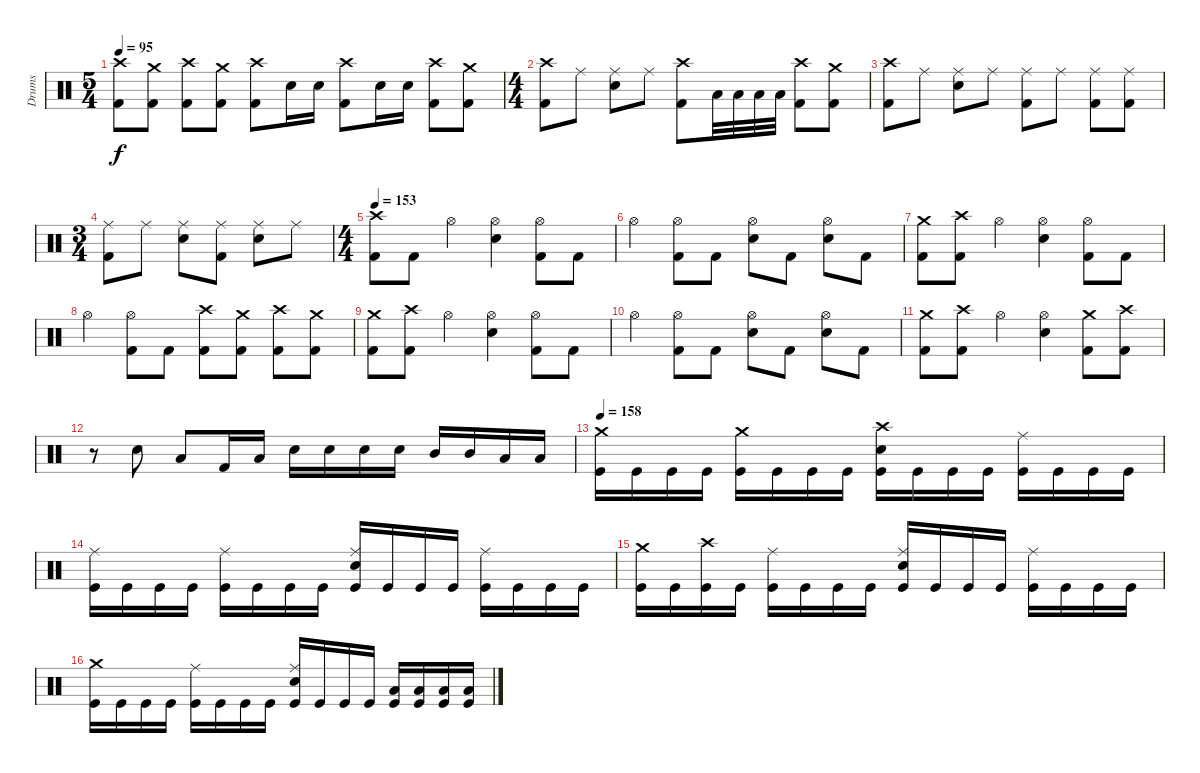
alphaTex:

\track ("Drums" "Drums") {instrument percussion}
\staff {score}
\articulation defaults
\ts (5 4)
\tempo 95
\clef neutral
\ks c
("Crash high (hit)" "Kick (hit) 2").8{dy f} ("Crash medium (hit)" "Kick (hit) 2").8 ("Crash high (hit)" "Kick (hit) 2").8 ("Crash medium (hit)" "Kick (hit) 2").8 ("Crash high (hit)" "Kick (hit) 2").8 "Snare (hit) 2".16 "Snare (hit) 2".16 ("Crash high (hit)" "Kick (hit) 2").8 "Snare (hit) 2".16 "Snare (hit) 2".16 ("Crash high (hit)" "Kick (hit) 2").8 ("Crash medium (hit)" "Kick (hit) 2").8 |
\ts (4 4)
("Crash high (hit)" "Kick (hit) 2").8 "Ride (middle)".8 ("Ride (middle)" "Snare (hit) 2").8 "Ride (middle)".8 ("Crash high (hit)" "Kick (hit) 2").8 "Low Tom (hit)".32 "Low Tom (hit)".32 "Low Tom (hit)".32 "Low Tom (hit)".32 ("Crash high (hit)" "Kick (hit) 2").8 ("Crash medium (hit)" "Kick (hit) 2").8 |
("Crash high (hit)" "Kick (hit) 2").8 "Ride (middle)".8 ("Ride (middle)" "Snare (hit) 2").8 "Ride (middle)".8 ("Ride (middle)" "Kick (hit) 2").8 "Ride (middle)".8 ("Ride (middle)" "Kick (hit) 2").8 ("Ride (middle)" "Kick (hit) 2").8 |
\ts (3 4)
("Ride (middle)" "Kick (hit) 2").8 "Ride (middle)".8 ("Ride (middle)" "Snare (hit) 2").8 ("Ride (middle)" "Kick (hit) 2").8 ("Ride (middle)" "Snare (hit) 2").8 "Ride (middle)".8 |
\ts (4 4)
\tempo 153
("Crash high (hit)" "Kick (hit) 2").8 "Kick (hit) 2".8 "Hi-Hat (open)".4 ("Hi-Hat (open)" "Snare (hit) 2").4 ("Hi-Hat (open)" "Kick (hit) 2").8 "Kick (hit) 2".8 |
"Hi-Hat (open)".4 ("Hi-Hat (open)" "Kick (hit) 2").8 "Kick (hit) 2".8 ("Hi-Hat (open)" "Snare (hit) 2").8 "Kick (hit) 2".8 ("Hi-Hat (open)" "Snare (hit) 2").8 "Kick (hit) 2".8 |
("Crash medium (hit)" "Kick (hit) 2").8 ("Crash high (hit)" "Kick (hit) 2").8 "Hi-Hat (open)".4 ("Hi-Hat (open)" "Snare (hit) 2").4 ("Hi-Hat (open)" "Kick (hit) 2").8 "Kick (hit) 2".8 |
"Hi-Hat (open)".4 ("Hi-Hat (open)" "Kick (hit) 2").8 "Kick (hit) 2".8 ("Crash high (hit)" "Kick (hit) 2").8 ("Crash medium (hit)" "Kick (hit) 2").8 ("Crash high (hit)" "Kick (hit) 2").8 ("Crash medium (hit)" "Kick (hit) 2").8 |
("Crash medium (hit)" "Kick (hit) 2").8 ("Crash high (hit)" "Kick (hit) 2").8 "Hi-Hat (open)".4 ("Hi-Hat (open)" "Snare (hit) 2").4 ("Hi-Hat (open)" "Kick (hit) 2").8 "Kick (hit) 2".8 |
"Hi-Hat (open)".4 ("Hi-Hat (open)" "Kick (hit) 2").8 "Kick (hit) 2".8 ("Hi-Hat (open)" "Snare (hit) 2").8 "Kick (hit) 2".8 ("Hi-Hat (open)" "Snare (hit) 2").8 "Kick (hit) 2".8 |
("Crash medium (hit)" "Kick (hit) 2").8 ("Crash high (hit)" "Kick (hit) 2").8 "Hi-Hat (open)".4 ("Hi-Hat (open)" "Snare (hit) 2").4 ("Crash medium (hit)" "Kick (hit) 2").8 ("Crash high (hit)" "Kick (hit) 2").8 |
r.8 "Snare (hit) 2".8 "Low Tom (hit)".8 "Kick (hit) 2".16 "Low Tom (hit)".16 "Snare (hit) 2".16 "Snare (hit) 2".16 "Snare (hit) 2".16 "Snare (hit) 2".16 "Mid Tom (hit)".16 "Mid Tom (hit)".16 "Low Tom (hit)".16 "Low Tom (hit)".16 |
\tempo 158
("Crash medium (hit)" "Kick (hit)").16 "Kick (hit)".16 "Kick (hit)".16 "Kick (hit)".16 ("Crash medium (hit)" "Kick (hit)").16 "Kick (hit)".16 "Kick (hit)".16 "Kick (hit)".16 ("Crash high (hit)" "Snare (hit) 2" "Kick (hit)").16 "Kick (hit)".16 "Kick (hit)".16 "Kick (hit)".16 ("Ride (middle)" "Kick (hit)").16 "Kick (hit)".16 "Kick (hit)".16 "Kick (hit)".16 |
("Ride (middle)" "Kick (hit)").16 "Kick (hit)".16 "Kick (hit)".16 "Kick (hit)".16 ("Ride (middle)" "Kick (hit)").16 "Kick (hit)".16 "Kick (hit)".16 "Kick (hit)".16 ("Ride (middle)" "Snare (hit) 2" "Kick (hit)").16 "Kick (hit)".16 "Kick (hit)".16 "Kick (hit)".16 ("Ride (middle)" "Kick (hit)").16 "Kick (hit)".16 "Kick (hit)".16 "Kick (hit)".16 |
("Crash medium (hit)" "Kick (hit)").16 "Kick (hit)".16 ("Crash high (hit)" "Kick (hit)").16 "Kick (hit)".16 ("Ride (middle)" "Kick (hit)").16 "Kick (hit)".16 "Kick (hit)".16 "Kick (hit)".16 ("Ride (middle)" "Snare (hit) 2" "Kick (hit)").16 "Kick (hit)".16 "Kick (hit)".16 "Kick (hit)".16 ("Ride (middle)" "Kick (hit)").16 "Kick (hit)".16 "Kick (hit)".16 "Kick (hit)".16 |
("Crash medium (hit)" "Kick (hit)").16 "Kick (hit)".16 "Kick (hit)".16 "Kick (hit)".16 ("Ride (middle)" "Kick (hit)").16 "Kick (hit)".16 "Kick (hit)".16 "Kick (hit)".16 ("Ride (middle)" "Snare (hit) 2" "Kick (hit)").16 "Kick (hit)".16 "Kick (hit)".16 "Kick (hit)".16 ("Low Tom (hit)" "Kick (hit)").16 ("Low Tom (hit)" "Kick (hit)").16 ("Low Tom (hit)" "Kick (hit)").16 ("Low Tom (hit)" "Kick (hit)").16
